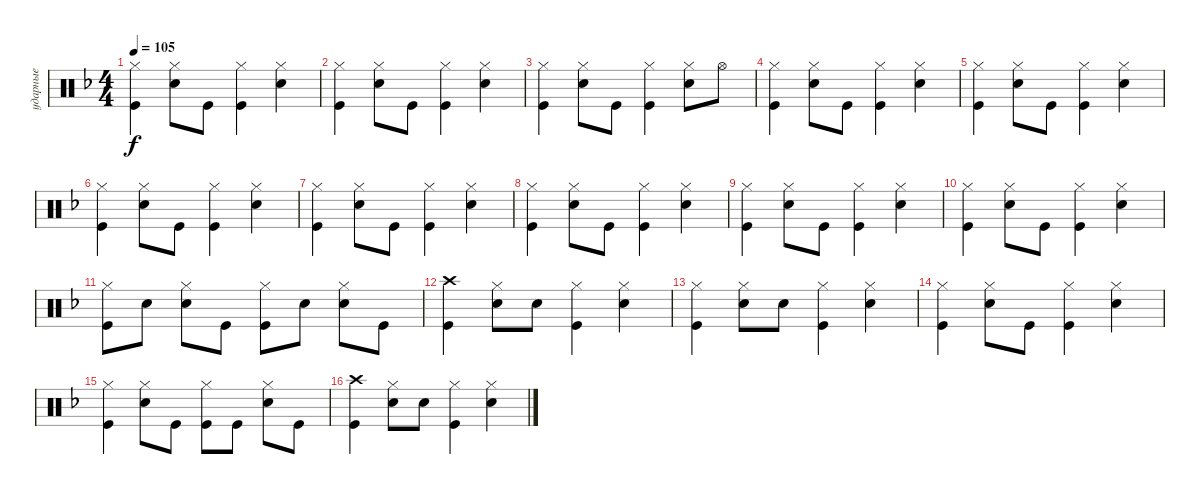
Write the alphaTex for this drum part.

\track ("ударные" "ударные") {instrument percussion}
\staff {score}
\articulation defaults
\ts (4 4)
\tempo 105
\clef neutral
\ks f
("Kick (hit)" "Hi-Hat (closed)").4{dy f} ("Snare (hit) 2" "Hi-Hat (closed)").8 "Kick (hit)".8 ("Kick (hit)" "Hi-Hat (closed)").4 ("Snare (hit) 2" "Hi-Hat (closed)").4 |
("Kick (hit)" "Hi-Hat (closed)").4 ("Snare (hit) 2" "Hi-Hat (closed)").8 "Kick (hit)".8 ("Kick (hit)" "Hi-Hat (closed)").4 ("Snare (hit) 2" "Hi-Hat (closed)").4 |
("Kick (hit)" "Hi-Hat (closed)").4 ("Snare (hit) 2" "Hi-Hat (closed)").8 "Kick (hit)".8 ("Kick (hit)" "Hi-Hat (closed)").4 ("Snare (hit) 2" "Hi-Hat (closed)").8 "Hi-Hat (open)".8 |
("Kick (hit)" "Hi-Hat (closed)").4 ("Snare (hit) 2" "Hi-Hat (closed)").8 "Kick (hit)".8 ("Kick (hit)" "Hi-Hat (closed)").4 ("Snare (hit) 2" "Hi-Hat (closed)").4 |
("Kick (hit)" "Hi-Hat (closed)").4 ("Snare (hit) 2" "Hi-Hat (closed)").8 "Kick (hit)".8 ("Kick (hit)" "Hi-Hat (closed)").4 ("Snare (hit) 2" "Hi-Hat (closed)").4 |
("Kick (hit)" "Hi-Hat (closed)").4 ("Snare (hit) 2" "Hi-Hat (closed)").8 "Kick (hit)".8 ("Kick (hit)" "Hi-Hat (closed)").4 ("Snare (hit) 2" "Hi-Hat (closed)").4 |
("Kick (hit)" "Hi-Hat (closed)").4 ("Snare (hit) 2" "Hi-Hat (closed)").8 "Kick (hit)".8 ("Kick (hit)" "Hi-Hat (closed)").4 ("Snare (hit) 2" "Hi-Hat (closed)").4 |
("Kick (hit)" "Hi-Hat (closed)").4 ("Snare (hit) 2" "Hi-Hat (closed)").8 "Kick (hit)".8 ("Kick (hit)" "Hi-Hat (closed)").4 ("Snare (hit) 2" "Hi-Hat (closed)").4 |
("Kick (hit)" "Hi-Hat (closed)").4 ("Snare (hit) 2" "Hi-Hat (closed)").8 "Kick (hit)".8 ("Kick (hit)" "Hi-Hat (closed)").4 ("Snare (hit) 2" "Hi-Hat (closed)").4 |
("Kick (hit)" "Hi-Hat (closed)").4 ("Snare (hit) 2" "Hi-Hat (closed)").8 "Kick (hit)".8 ("Kick (hit)" "Hi-Hat (closed)").4 ("Snare (hit) 2" "Hi-Hat (closed)").4 |
("Kick (hit)" "Hi-Hat (closed)").8 "Snare (hit) 2".8 ("Snare (hit) 2" "Hi-Hat (closed)").8 "Kick (hit)".8 ("Kick (hit)" "Hi-Hat (closed)").8 "Snare (hit) 2".8 ("Snare (hit) 2" "Hi-Hat (closed)").8 "Kick (hit)".8 |
("Kick (hit)" "Crash high (hit)").4 ("Snare (hit) 2" "Hi-Hat (closed)").8 "Snare (hit) 2".8 ("Hi-Hat (closed)" "Kick (hit)").4 ("Snare (hit) 2" "Hi-Hat (closed)").4 |
("Kick (hit)" "Hi-Hat (closed)").4 ("Snare (hit) 2" "Hi-Hat (closed)").8 "Snare (hit) 2".8 ("Hi-Hat (closed)" "Kick (hit)").4 ("Snare (hit) 2" "Hi-Hat (closed)").4 |
("Kick (hit)" "Hi-Hat (closed)").4 ("Snare (hit) 2" "Hi-Hat (closed)").8 "Kick (hit)".8 ("Kick (hit)" "Hi-Hat (closed)").4 ("Snare (hit) 2" "Hi-Hat (closed)").4 |
("Kick (hit)" "Hi-Hat (closed)").4 ("Snare (hit) 2" "Hi-Hat (closed)").8 "Kick (hit)".8 ("Kick (hit)" "Hi-Hat (closed)").8 "Kick (hit)".8 ("Snare (hit) 2" "Hi-Hat (closed)").8 "Kick (hit)".8 |
("Kick (hit)" "Crash high (hit)").4 ("Snare (hit) 2" "Hi-Hat (closed)").8 "Snare (hit) 2".8 ("Hi-Hat (closed)" "Kick (hit)").4 ("Snare (hit) 2" "Hi-Hat (closed)").4
